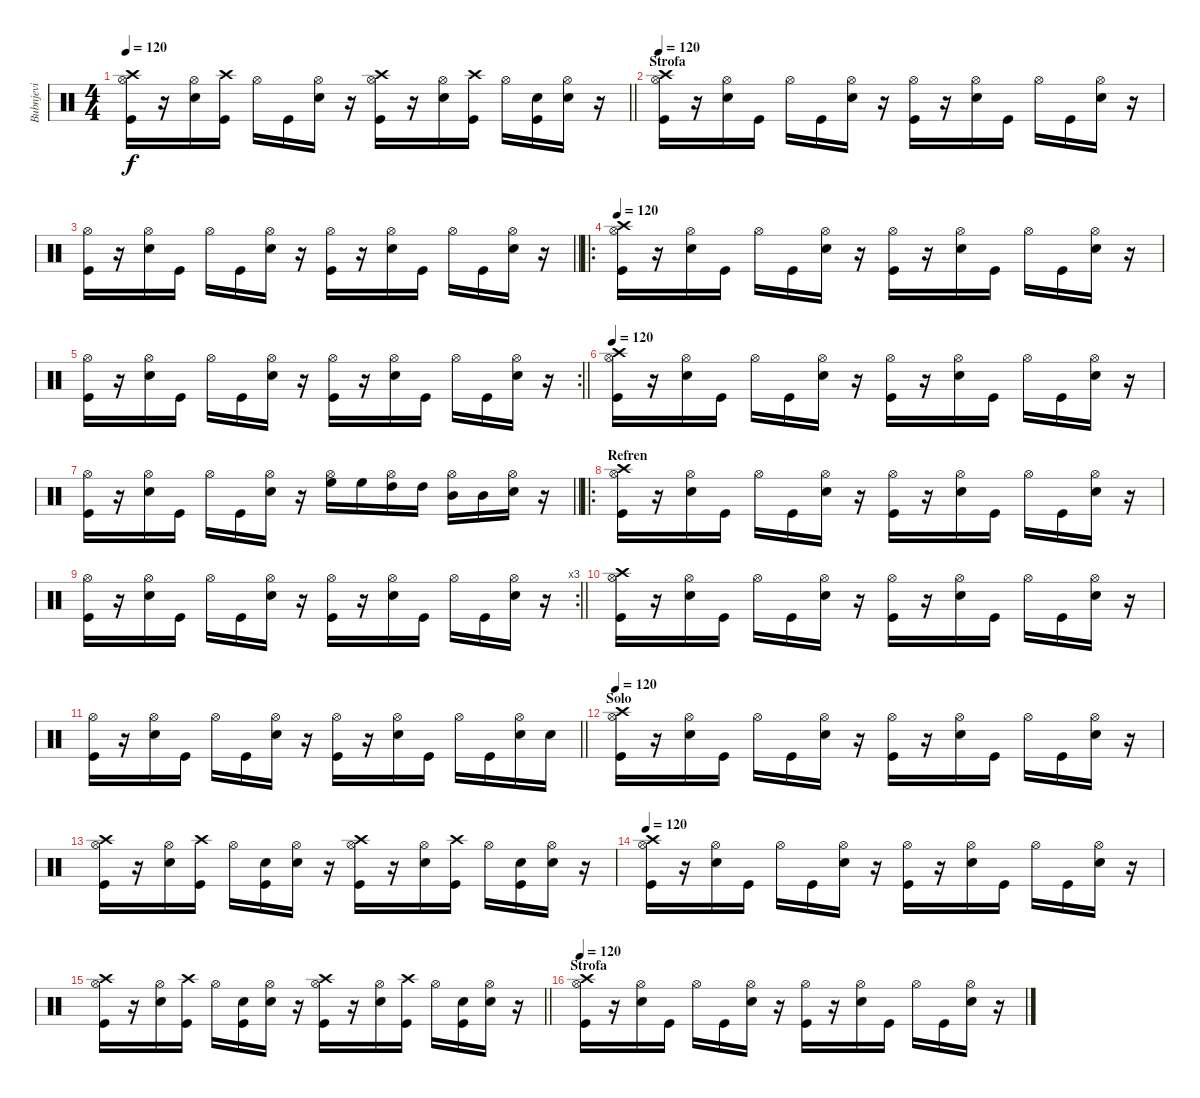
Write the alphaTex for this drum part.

\track ("Bubnjevi" "Bubnjevi") {instrument percussion}
\staff {score}
\articulation defaults
\ts (4 4)
\tempo 120
\clef neutral
\barLineRight lightlight
\ks c
("Kick (hit)" "Hi-Hat (open)" "Crash high (hit)").16{dy f} r.16 ("Snare (hit) 2" "Hi-Hat (open)").16 ("Kick (hit)" "Crash high (hit)").16 "Hi-Hat (open)".16 "Kick (hit)".16 ("Snare (hit) 2" "Hi-Hat (open)").16 r.16 ("Kick (hit)" "Hi-Hat (open)" "Crash high (hit)").16 r.16 ("Snare (hit) 2" "Hi-Hat (open)").16 ("Kick (hit)" "Crash high (hit)").16 "Hi-Hat (open)".16 ("Kick (hit)" "Snare (hit) 2").16 ("Snare (hit) 2" "Hi-Hat (open)").16 r.16 |
\section ("" "Strofa")
\tempo 120
("Kick (hit)" "Hi-Hat (open)" "Crash high (hit)").16 r.16 ("Snare (hit) 2" "Hi-Hat (open)").16 "Kick (hit)".16 "Hi-Hat (open)".16 "Kick (hit)".16 ("Snare (hit) 2" "Hi-Hat (open)").16 r.16 ("Kick (hit)" "Hi-Hat (open)").16 r.16 ("Snare (hit) 2" "Hi-Hat (open)").16 "Kick (hit)".16 "Hi-Hat (open)".16 "Kick (hit)".16 ("Snare (hit) 2" "Hi-Hat (open)").16 r.16 |
\barLineRight lightlight
("Kick (hit)" "Hi-Hat (open)").16 r.16 ("Snare (hit) 2" "Hi-Hat (open)").16 "Kick (hit)".16 "Hi-Hat (open)".16 "Kick (hit)".16 ("Snare (hit) 2" "Hi-Hat (open)").16 r.16 ("Kick (hit)" "Hi-Hat (open)").16 r.16 ("Snare (hit) 2" "Hi-Hat (open)").16 "Kick (hit)".16 "Hi-Hat (open)".16 "Kick (hit)".16 ("Snare (hit) 2" "Hi-Hat (open)").16 r.16 |
\ro
\tempo 120
("Kick (hit)" "Hi-Hat (open)" "Crash high (hit)").16 r.16 ("Snare (hit) 2" "Hi-Hat (open)").16 "Kick (hit)".16 "Hi-Hat (open)".16 "Kick (hit)".16 ("Snare (hit) 2" "Hi-Hat (open)").16 r.16 ("Kick (hit)" "Hi-Hat (open)").16 r.16 ("Snare (hit) 2" "Hi-Hat (open)").16 "Kick (hit)".16 "Hi-Hat (open)".16 "Kick (hit)".16 ("Snare (hit) 2" "Hi-Hat (open)").16 r.16 |
\rc 2
\barLineRight lightlight
("Kick (hit)" "Hi-Hat (open)").16 r.16 ("Snare (hit) 2" "Hi-Hat (open)").16 "Kick (hit)".16 "Hi-Hat (open)".16 "Kick (hit)".16 ("Snare (hit) 2" "Hi-Hat (open)").16 r.16 ("Kick (hit)" "Hi-Hat (open)").16 r.16 ("Snare (hit) 2" "Hi-Hat (open)").16 "Kick (hit)".16 "Hi-Hat (open)".16 "Kick (hit)".16 ("Snare (hit) 2" "Hi-Hat (open)").16 r.16 |
\tempo 120
("Kick (hit)" "Hi-Hat (open)" "Crash high (hit)").16 r.16 ("Snare (hit) 2" "Hi-Hat (open)").16 "Kick (hit)".16 "Hi-Hat (open)".16 "Kick (hit)".16 ("Snare (hit) 2" "Hi-Hat (open)").16 r.16 ("Kick (hit)" "Hi-Hat (open)").16 r.16 ("Snare (hit) 2" "Hi-Hat (open)").16 "Kick (hit)".16 "Hi-Hat (open)".16 "Kick (hit)".16 ("Snare (hit) 2" "Hi-Hat (open)").16 r.16 |
\barLineRight lightlight
("Kick (hit)" "Hi-Hat (open)").16 r.16 ("Snare (hit) 2" "Hi-Hat (open)").16 "Kick (hit)".16 "Hi-Hat (open)".16 "Kick (hit)".16 ("Snare (hit) 2" "Hi-Hat (open)").16 r.16 ("High Floor Tom (hit)" "Hi-Hat (open)").16 "High Floor Tom (hit)".16 ("High Tom (hit)" "Hi-Hat (open)").16 "High Tom (hit)".16 ("Mid Tom (hit)" "Hi-Hat (open)").16 "Mid Tom (hit)".16 ("Electric Snare (hit)" "Hi-Hat (open)").16 r.16 |
\ro
\section ("" "Refren")
("Kick (hit)" "Hi-Hat (open)" "Crash high (hit)").16 r.16 ("Snare (hit) 2" "Hi-Hat (open)").16 "Kick (hit)".16 "Hi-Hat (open)".16 "Kick (hit)".16 ("Snare (hit) 2" "Hi-Hat (open)").16 r.16 ("Kick (hit)" "Hi-Hat (open)").16 r.16 ("Snare (hit) 2" "Hi-Hat (open)").16 "Kick (hit)".16 "Hi-Hat (open)".16 "Kick (hit)".16 ("Snare (hit) 2" "Hi-Hat (open)").16 r.16 |
\rc 3
\barLineRight lightlight
("Kick (hit)" "Hi-Hat (open)").16 r.16 ("Snare (hit) 2" "Hi-Hat (open)").16 "Kick (hit)".16 "Hi-Hat (open)".16 "Kick (hit)".16 ("Snare (hit) 2" "Hi-Hat (open)").16 r.16 ("Kick (hit)" "Hi-Hat (open)").16 r.16 ("Snare (hit) 2" "Hi-Hat (open)").16 "Kick (hit)".16 "Hi-Hat (open)".16 "Kick (hit)".16 ("Snare (hit) 2" "Hi-Hat (open)").16 r.16 |
("Kick (hit)" "Hi-Hat (open)" "Crash high (hit)").16 r.16 ("Snare (hit) 2" "Hi-Hat (open)").16 "Kick (hit)".16 "Hi-Hat (open)".16 "Kick (hit)".16 ("Snare (hit) 2" "Hi-Hat (open)").16 r.16 ("Kick (hit)" "Hi-Hat (open)").16 r.16 ("Snare (hit) 2" "Hi-Hat (open)").16 "Kick (hit)".16 "Hi-Hat (open)".16 "Kick (hit)".16 ("Snare (hit) 2" "Hi-Hat (open)").16 r.16 |
\barLineRight lightlight
("Kick (hit)" "Hi-Hat (open)").16 r.16 ("Snare (hit) 2" "Hi-Hat (open)").16 "Kick (hit)".16 "Hi-Hat (open)".16 "Kick (hit)".16 ("Snare (hit) 2" "Hi-Hat (open)").16 r.16 ("Kick (hit)" "Hi-Hat (open)").16 r.16 ("Snare (hit) 2" "Hi-Hat (open)").16 "Kick (hit)".16 "Hi-Hat (open)".16 "Kick (hit)".16 ("Snare (hit) 2" "Hi-Hat (open)").16 "Snare (hit) 2".16 |
\section ("" "Solo")
\tempo 120
("Kick (hit)" "Hi-Hat (open)" "Crash high (hit)").16 r.16 ("Snare (hit) 2" "Hi-Hat (open)").16 "Kick (hit)".16 "Hi-Hat (open)".16 "Kick (hit)".16 ("Snare (hit) 2" "Hi-Hat (open)").16 r.16 ("Kick (hit)" "Hi-Hat (open)").16 r.16 ("Snare (hit) 2" "Hi-Hat (open)").16 "Kick (hit)".16 "Hi-Hat (open)".16 "Kick (hit)".16 ("Snare (hit) 2" "Hi-Hat (open)").16 r.16 |
("Kick (hit)" "Hi-Hat (open)" "Crash high (hit)").16 r.16 ("Snare (hit) 2" "Hi-Hat (open)").16 ("Kick (hit)" "Crash high (hit)").16 "Hi-Hat (open)".16 ("Kick (hit)" "Snare (hit) 2").16 ("Snare (hit) 2" "Hi-Hat (open)").16 r.16 ("Kick (hit)" "Hi-Hat (open)" "Crash high (hit)").16 r.16 ("Snare (hit) 2" "Hi-Hat (open)").16 ("Kick (hit)" "Crash high (hit)").16 "Hi-Hat (open)".16 ("Kick (hit)" "Snare (hit) 2").16 ("Snare (hit) 2" "Hi-Hat (open)").16 r.16 |
\tempo 120
("Kick (hit)" "Hi-Hat (open)" "Crash high (hit)").16 r.16 ("Snare (hit) 2" "Hi-Hat (open)").16 "Kick (hit)".16 "Hi-Hat (open)".16 "Kick (hit)".16 ("Snare (hit) 2" "Hi-Hat (open)").16 r.16 ("Kick (hit)" "Hi-Hat (open)").16 r.16 ("Snare (hit) 2" "Hi-Hat (open)").16 "Kick (hit)".16 "Hi-Hat (open)".16 "Kick (hit)".16 ("Snare (hit) 2" "Hi-Hat (open)").16 r.16 |
\barLineRight lightlight
("Kick (hit)" "Hi-Hat (open)" "Crash high (hit)").16 r.16 ("Snare (hit) 2" "Hi-Hat (open)").16 ("Kick (hit)" "Crash high (hit)").16 "Hi-Hat (open)".16 ("Kick (hit)" "Snare (hit) 2").16 ("Snare (hit) 2" "Hi-Hat (open)").16 r.16 ("Kick (hit)" "Hi-Hat (open)" "Crash high (hit)").16 r.16 ("Snare (hit) 2" "Hi-Hat (open)").16 ("Kick (hit)" "Crash high (hit)").16 "Hi-Hat (open)".16 ("Kick (hit)" "Snare (hit) 2").16 ("Snare (hit) 2" "Hi-Hat (open)").16 r.16 |
\section ("" "Strofa")
\tempo 120
("Kick (hit)" "Hi-Hat (open)" "Crash high (hit)").16 r.16 ("Snare (hit) 2" "Hi-Hat (open)").16 "Kick (hit)".16 "Hi-Hat (open)".16 "Kick (hit)".16 ("Snare (hit) 2" "Hi-Hat (open)").16 r.16 ("Kick (hit)" "Hi-Hat (open)").16 r.16 ("Snare (hit) 2" "Hi-Hat (open)").16 "Kick (hit)".16 "Hi-Hat (open)".16 "Kick (hit)".16 ("Snare (hit) 2" "Hi-Hat (open)").16 r.16
